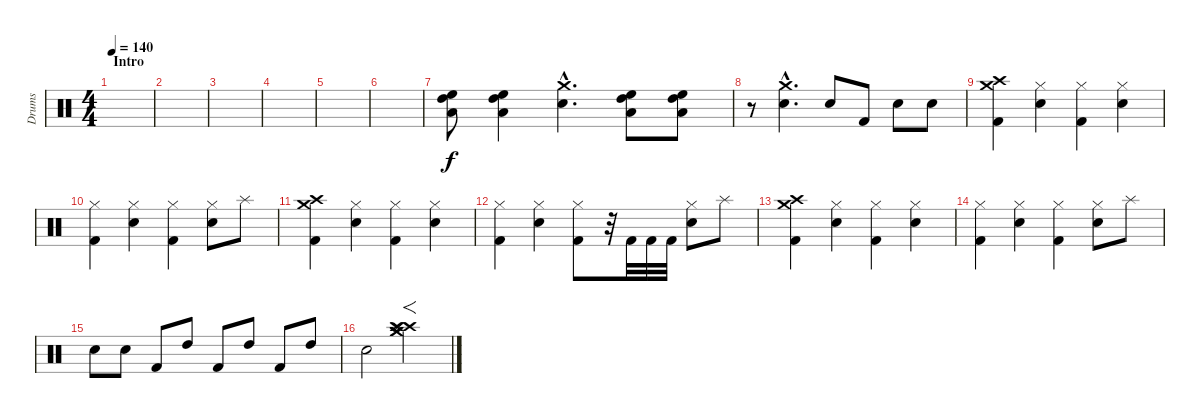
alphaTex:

\track ("Drums" "Drums") {instrument percussion}
\staff {score}
\articulation defaults
\ts (4 4)
\section ("" "Intro")
\tempo 140
\clef neutral
\ks c
|
|
|
|
|
|
("High Floor Tom (hit)" "High Tom (hit)" "Low Tom (hit)").8 ("High Floor Tom (hit)" "High Tom (hit)" "Low Tom (hit)").4 ("Crash medium (hit)"{hac} "Snare (hit) 2"{hac}).4{d} ("High Floor Tom (hit)" "High Tom (hit)" "Low Tom (hit)").8 ("High Floor Tom (hit)" "High Tom (hit)" "Low Tom (hit)").8 |
r.8 ("Crash medium (hit)"{hac} "Snare (hit) 2"{hac}).4{d} "Snare (hit) 2".8 "Kick (hit) 2".8 "Snare (hit) 2".8 "Snare (hit) 2".8 |
("Crash medium (hit)" "Crash high (hit)" "Kick (hit) 2").4 ("Hi-Hat (closed)" "Snare (hit) 2").4 ("Hi-Hat (closed)" "Kick (hit) 2").4 ("Hi-Hat (closed)" "Snare (hit) 2").4 |
("Hi-Hat (closed)" "Kick (hit) 2").4 ("Hi-Hat (closed)" "Snare (hit) 2").4 ("Hi-Hat (closed)" "Kick (hit) 2").4 ("Hi-Hat (closed)" "Snare (hit) 2").8 "Splash (hit)".8 |
("Crash medium (hit)" "Crash high (hit)" "Kick (hit) 2").4 ("Hi-Hat (closed)" "Snare (hit) 2").4 ("Hi-Hat (closed)" "Kick (hit) 2").4 ("Hi-Hat (closed)" "Snare (hit) 2").4 |
("Hi-Hat (closed)" "Kick (hit) 2").4 ("Hi-Hat (closed)" "Snare (hit) 2").4 ("Hi-Hat (closed)" "Kick (hit) 2").8 r.32 "Kick (hit) 2".32 "Kick (hit) 2".32 "Kick (hit) 2".32 ("Hi-Hat (closed)" "Snare (hit) 2").8 "Splash (hit)".8 |
("Crash medium (hit)" "Crash high (hit)" "Kick (hit) 2").4 ("Hi-Hat (closed)" "Snare (hit) 2").4 ("Hi-Hat (closed)" "Kick (hit) 2").4 ("Hi-Hat (closed)" "Snare (hit) 2").4 |
("Hi-Hat (closed)" "Kick (hit) 2").4 ("Hi-Hat (closed)" "Snare (hit) 2").4 ("Hi-Hat (closed)" "Kick (hit) 2").4 ("Hi-Hat (closed)" "Snare (hit) 2").8 "Splash (hit)".8 |
"Snare (hit) 2".8 "Snare (hit) 2".8 "Kick (hit) 2".8 "High Tom (hit)".8 "Kick (hit) 2".8 "High Tom (hit)".8 "Kick (hit) 2".8 "High Tom (hit)".8 |
"Snare (hit) 2".2 ("Crash high (hit)" "Splash (hit)" "Crash medium (hit)" "Crash medium (hit)" "Crash high (hit)" "Splash (hit)").2{f}
